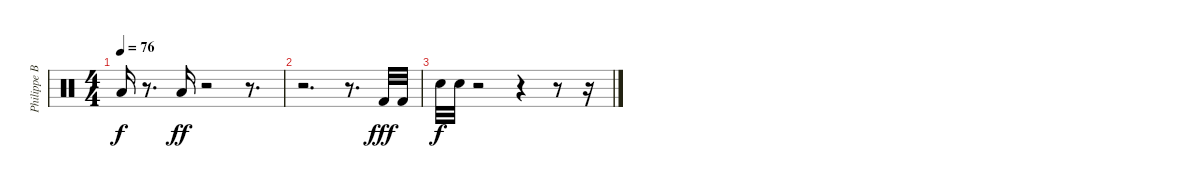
\track ("Philippe Borda" "Philippe B") {instrument percussion}
\staff {score}
\articulation defaults
\ts (4 4)
\tempo 76
\clef neutral
\ks c "Low Floor Tom (hit)".16{dy f}
r.8{d} "Low Floor Tom (hit)".16{dy ff} r.2 r.8{d} |
r.2{d} r.8{d} "Kick (hit) 2".32{dy fff} "Kick (hit) 2".32 |
"Snare (hit) 2".32{dy f} "Snare (hit) 2".32 r.2 r.4 r.8 r.16
